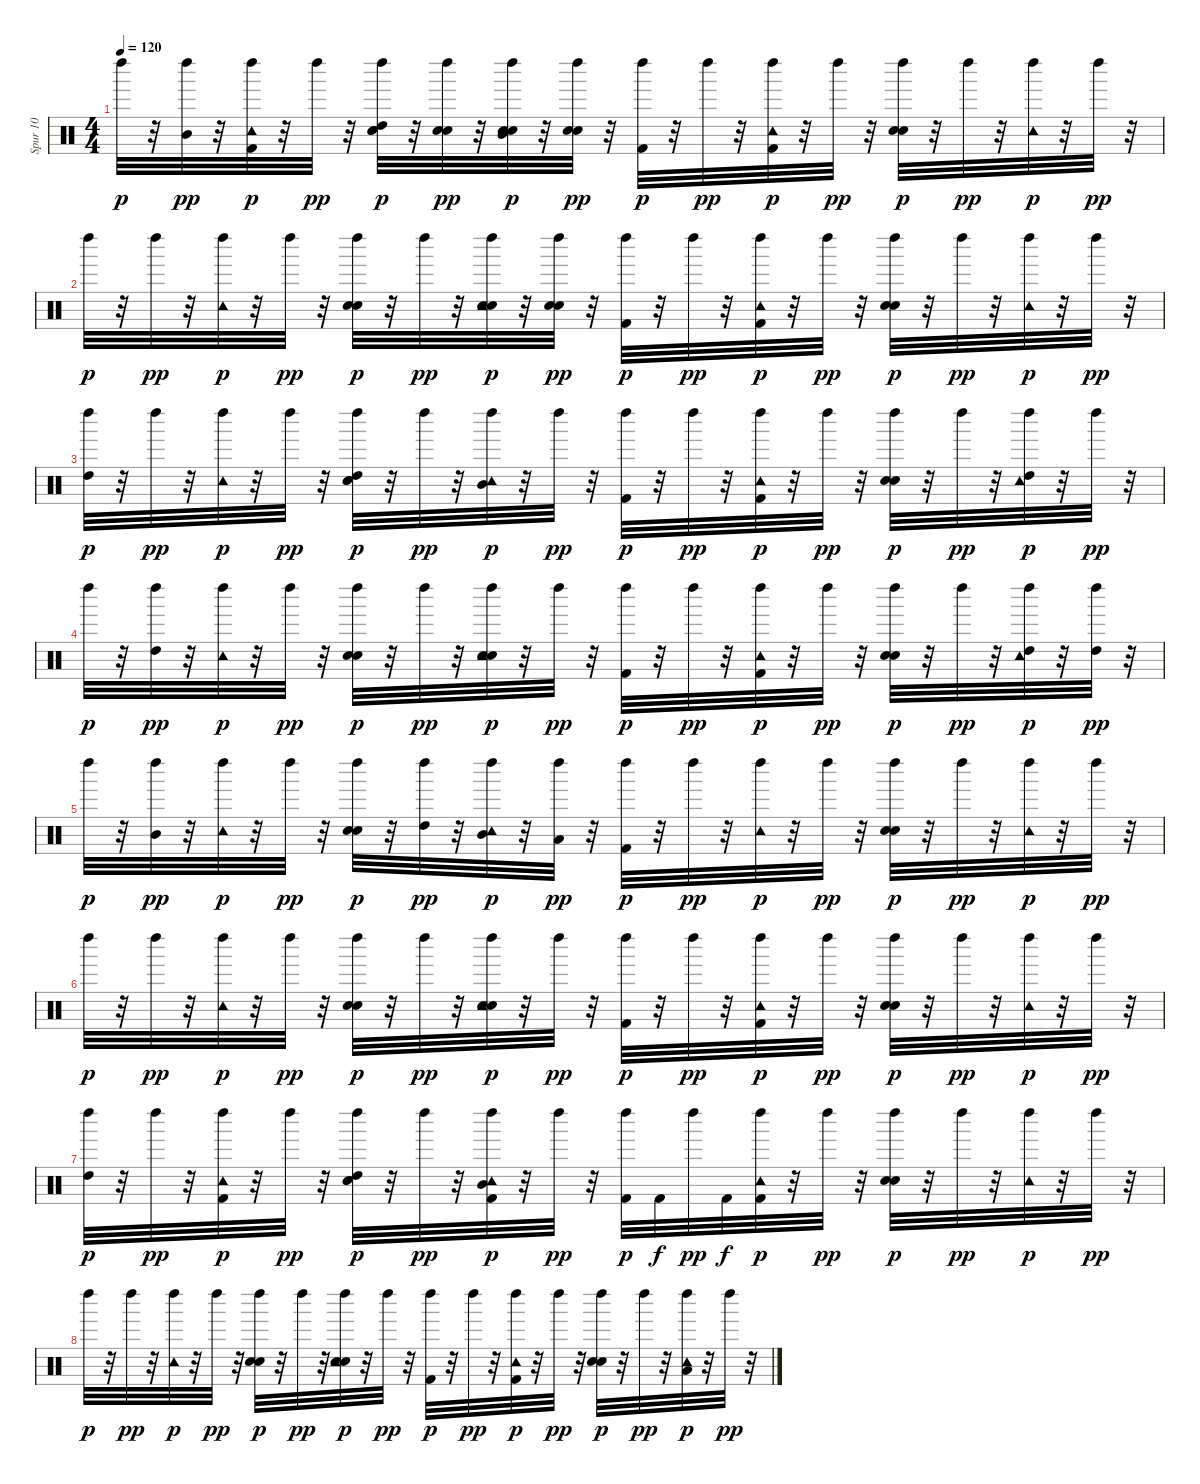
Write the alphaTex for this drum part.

\track ("Spur 10" "Spur 10") {instrument percussion}
\staff {score}
\articulation defaults
\ts (4 4)
\tempo 120
\clef neutral
\ks c "Left Maraca (hit)".32{dy p}
r.32 ("Mid Tom (hit)" "Left Maraca (hit)").32{dy pp} r.32 ("Kick (hit) 2" "Tambourine (hit)" "Left Maraca (hit)").32{dy p} r.32 "Left Maraca (hit)".32{dy pp} r.32 ("Hand Clap (hit)" "Electric Snare (hit)" "High Tom (hit)" "Left Maraca (hit)").32{dy p} r.32 ("Hand Clap (hit)" "Electric Snare (hit)" "Left Maraca (hit)").32{dy pp} r.32 ("Hand Clap (hit)" "Electric Snare (hit)" "Mid Tom (hit)" "Tambourine (hit)" "Left Maraca (hit)").32{dy p} r.32 ("Hand Clap (hit)" "Electric Snare (hit)" "Left Maraca (hit)").32{dy pp} r.32 ("Kick (hit) 2" "Left Maraca (hit)").32{dy p} r.32 "Left Maraca (hit)".32{dy pp} r.32 ("Kick (hit) 2" "Tambourine (hit)" "Left Maraca (hit)").32{dy p} r.32 "Left Maraca (hit)".32{dy pp} r.32 ("Hand Clap (hit)" "Electric Snare (hit)" "Left Maraca (hit)").32{dy p} r.32 "Left Maraca (hit)".32{dy pp} r.32 ("Tambourine (hit)" "Left Maraca (hit)").32{dy p} r.32 "Left Maraca (hit)".32{dy pp} r.32 |
"Left Maraca (hit)".32{dy p} r.32 "Left Maraca (hit)".32{dy pp} r.32 ("Tambourine (hit)" "Left Maraca (hit)").32{dy p} r.32 "Left Maraca (hit)".32{dy pp} r.32 ("Hand Clap (hit)" "Electric Snare (hit)" "Left Maraca (hit)").32{dy p} r.32 "Left Maraca (hit)".32{dy pp} r.32 ("Hand Clap (hit)" "Electric Snare (hit)" "Tambourine (hit)" "Left Maraca (hit)").32{dy p} r.32 ("Hand Clap (hit)" "Electric Snare (hit)" "Left Maraca (hit)").32{dy pp} r.32 ("Kick (hit) 2" "Left Maraca (hit)").32{dy p} r.32 "Left Maraca (hit)".32{dy pp} r.32 ("Kick (hit) 2" "Tambourine (hit)" "Left Maraca (hit)").32{dy p} r.32 "Left Maraca (hit)".32{dy pp} r.32 ("Hand Clap (hit)" "Electric Snare (hit)" "Left Maraca (hit)").32{dy p} r.32 "Left Maraca (hit)".32{dy pp} r.32 ("Tambourine (hit)" "Left Maraca (hit)").32{dy p} r.32 "Left Maraca (hit)".32{dy pp} r.32 |
("High Tom (hit)" "Left Maraca (hit)").32{dy p} r.32 "Left Maraca (hit)".32{dy pp} r.32 ("Tambourine (hit)" "Left Maraca (hit)").32{dy p} r.32 "Left Maraca (hit)".32{dy pp} r.32 ("Hand Clap (hit)" "Electric Snare (hit)" "High Tom (hit)" "Left Maraca (hit)").32{dy p} r.32 "Left Maraca (hit)".32{dy pp} r.32 ("Mid Tom (hit)" "Tambourine (hit)" "Left Maraca (hit)").32{dy p} r.32 "Left Maraca (hit)".32{dy pp} r.32 ("Kick (hit) 2" "Left Maraca (hit)").32{dy p} r.32 "Left Maraca (hit)".32{dy pp} r.32 ("Kick (hit) 2" "Tambourine (hit)" "Left Maraca (hit)").32{dy p} r.32 "Left Maraca (hit)".32{dy pp} r.32 ("Hand Clap (hit)" "Electric Snare (hit)" "Left Maraca (hit)").32{dy p} r.32 "Left Maraca (hit)".32{dy pp} r.32 ("High Tom (hit)" "Tambourine (hit)" "Left Maraca (hit)").32{dy p} r.32 "Left Maraca (hit)".32{dy pp} r.32 |
"Left Maraca (hit)".32{dy p} r.32 ("High Tom (hit)" "Left Maraca (hit)").32{dy pp} r.32 ("Tambourine (hit)" "Left Maraca (hit)").32{dy p} r.32 "Left Maraca (hit)".32{dy pp} r.32 ("Hand Clap (hit)" "Electric Snare (hit)" "Left Maraca (hit)").32{dy p} r.32 "Left Maraca (hit)".32{dy pp} r.32 ("Hand Clap (hit)" "Electric Snare (hit)" "Tambourine (hit)" "Left Maraca (hit)").32{dy p} r.32 "Left Maraca (hit)".32{dy pp} r.32 ("Kick (hit) 2" "Left Maraca (hit)").32{dy p} r.32 "Left Maraca (hit)".32{dy pp} r.32 ("Kick (hit) 2" "Tambourine (hit)" "Left Maraca (hit)").32{dy p} r.32 "Left Maraca (hit)".32{dy pp} r.32 ("Hand Clap (hit)" "Electric Snare (hit)" "Left Maraca (hit)").32{dy p} r.32 "Left Maraca (hit)".32{dy pp} r.32 ("High Tom (hit)" "Tambourine (hit)" "Left Maraca (hit)").32{dy p} r.32 ("High Tom (hit)" "Left Maraca (hit)").32{dy pp} r.32 |
"Left Maraca (hit)".32{dy p} r.32 ("Mid Tom (hit)" "Left Maraca (hit)").32{dy pp} r.32 ("Tambourine (hit)" "Left Maraca (hit)").32{dy p} r.32 "Left Maraca (hit)".32{dy pp} r.32 ("Hand Clap (hit)" "Electric Snare (hit)" "Left Maraca (hit)").32{dy p} r.32 ("High Tom (hit)" "Left Maraca (hit)").32{dy pp} r.32 ("Mid Tom (hit)" "Tambourine (hit)" "Left Maraca (hit)").32{dy p} r.32 ("Low Tom (hit)" "Left Maraca (hit)").32{dy pp} r.32 ("Kick (hit) 2" "Left Maraca (hit)").32{dy p} r.32 "Left Maraca (hit)".32{dy pp} r.32 ("Tambourine (hit)" "Left Maraca (hit)").32{dy p} r.32 "Left Maraca (hit)".32{dy pp} r.32 ("Hand Clap (hit)" "Electric Snare (hit)" "Left Maraca (hit)").32{dy p} r.32 "Left Maraca (hit)".32{dy pp} r.32 ("Tambourine (hit)" "Left Maraca (hit)").32{dy p} r.32 "Left Maraca (hit)".32{dy pp} r.32 |
"Left Maraca (hit)".32{dy p} r.32 "Left Maraca (hit)".32{dy pp} r.32 ("Tambourine (hit)" "Left Maraca (hit)").32{dy p} r.32 "Left Maraca (hit)".32{dy pp} r.32 ("Hand Clap (hit)" "Electric Snare (hit)" "Left Maraca (hit)").32{dy p} r.32 "Left Maraca (hit)".32{dy pp} r.32 ("Hand Clap (hit)" "Electric Snare (hit)" "Tambourine (hit)" "Left Maraca (hit)").32{dy p} r.32 "Left Maraca (hit)".32{dy pp} r.32 ("Kick (hit) 2" "Left Maraca (hit)").32{dy p} r.32 "Left Maraca (hit)".32{dy pp} r.32 ("Kick (hit) 2" "Tambourine (hit)" "Left Maraca (hit)").32{dy p} r.32 "Left Maraca (hit)".32{dy pp} r.32 ("Hand Clap (hit)" "Electric Snare (hit)" "Left Maraca (hit)").32{dy p} r.32 "Left Maraca (hit)".32{dy pp} r.32 ("Tambourine (hit)" "Left Maraca (hit)").32{dy p} r.32 "Left Maraca (hit)".32{dy pp} r.32 |
("High Tom (hit)" "Left Maraca (hit)").32{dy p} r.32 "Left Maraca (hit)".32{dy pp} r.32 ("Kick (hit) 2" "Tambourine (hit)" "Left Maraca (hit)").32{dy p} r.32 "Left Maraca (hit)".32{dy pp} r.32 ("Hand Clap (hit)" "Electric Snare (hit)" "High Tom (hit)" "Left Maraca (hit)").32{dy p} r.32 "Left Maraca (hit)".32{dy pp} r.32 ("Kick (hit) 2" "Mid Tom (hit)" "Tambourine (hit)" "Left Maraca (hit)").32{dy p} r.32 "Left Maraca (hit)".32{dy pp} r.32 ("Kick (hit) 2" "Left Maraca (hit)").32{dy p} "Kick (hit) 2".32{dy f} "Left Maraca (hit)".32{dy pp} "Kick (hit) 2".32{dy f} ("Kick (hit) 2" "Tambourine (hit)" "Left Maraca (hit)").32{dy p} r.32 "Left Maraca (hit)".32{dy pp} r.32 ("Hand Clap (hit)" "Electric Snare (hit)" "Left Maraca (hit)").32{dy p} r.32 "Left Maraca (hit)".32{dy pp} r.32 ("Tambourine (hit)" "Left Maraca (hit)").32{dy p} r.32 "Left Maraca (hit)".32{dy pp} r.32 |
"Left Maraca (hit)".32{dy p} r.32 "Left Maraca (hit)".32{dy pp} r.32 ("Tambourine (hit)" "Left Maraca (hit)").32{dy p} r.32 "Left Maraca (hit)".32{dy pp} r.32 ("Hand Clap (hit)" "Electric Snare (hit)" "Left Maraca (hit)").32{dy p} r.32 "Left Maraca (hit)".32{dy pp} r.32 ("Hand Clap (hit)" "Electric Snare (hit)" "Tambourine (hit)" "Left Maraca (hit)").32{dy p} r.32 "Left Maraca (hit)".32{dy pp} r.32 ("Kick (hit) 2" "Left Maraca (hit)").32{dy p} r.32 "Left Maraca (hit)".32{dy pp} r.32 ("Kick (hit) 2" "Tambourine (hit)" "Left Maraca (hit)").32{dy p} r.32 "Left Maraca (hit)".32{dy pp} r.32 ("Hand Clap (hit)" "Electric Snare (hit)" "Left Maraca (hit)").32{dy p} r.32 "Left Maraca (hit)".32{dy pp} r.32 ("Low Tom (hit)" "Tambourine (hit)" "Left Maraca (hit)").32{dy p} r.32 "Left Maraca (hit)".32{dy pp} r.32
